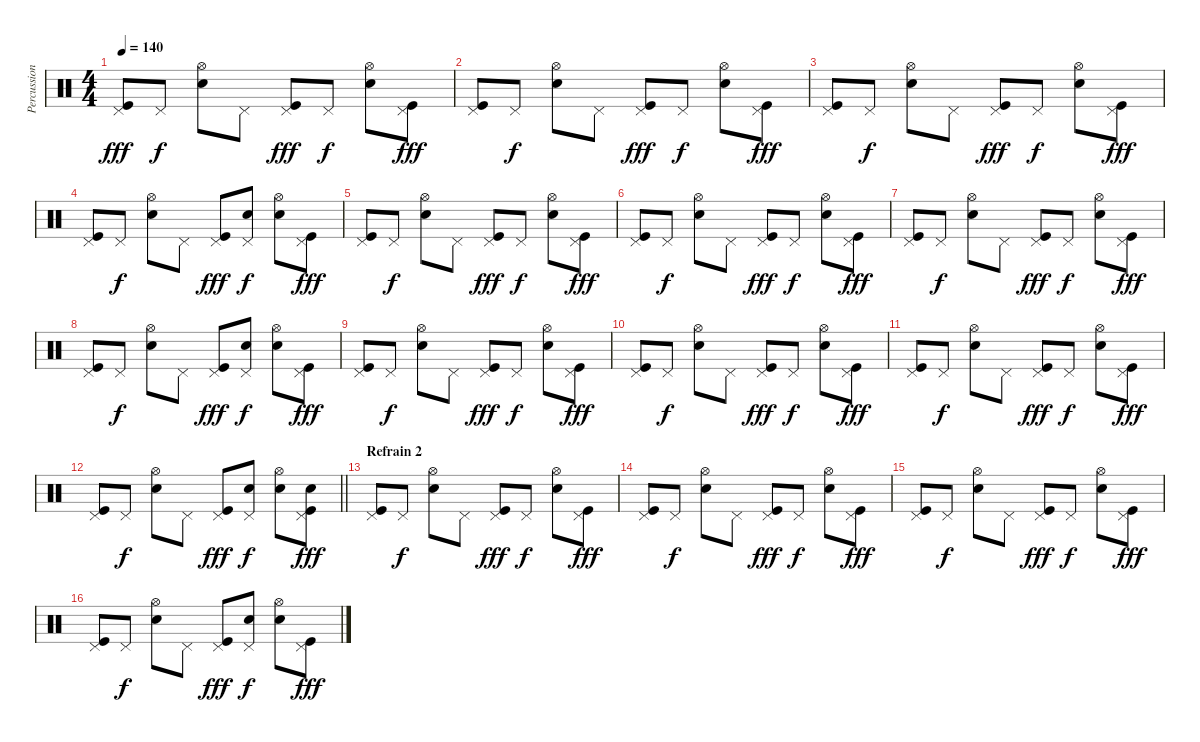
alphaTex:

\track ("Percussion" "Percussion") {instrument percussion}
\staff {score}
\articulation defaults
\ts (4 4)
\tempo 140
\clef neutral
\ks c
("Kick (hit)" "Pedal Hi-Hat (hit)").8{dy fff} "Pedal Hi-Hat (hit)".8{dy f} ("Metronome (bell)" "Hi-Hat (open)").8 "Pedal Hi-Hat (hit)".8 ("Kick (hit)" "Pedal Hi-Hat (hit)").8{dy fff} "Pedal Hi-Hat (hit)".8{dy f} ("Metronome (bell)" "Hi-Hat (open)").8 ("Kick (hit)" "Pedal Hi-Hat (hit)").8{dy fff} |
("Kick (hit)" "Pedal Hi-Hat (hit)").8 "Pedal Hi-Hat (hit)".8{dy f} ("Metronome (bell)" "Hi-Hat (open)").8 "Pedal Hi-Hat (hit)".8 ("Kick (hit)" "Pedal Hi-Hat (hit)").8{dy fff} "Pedal Hi-Hat (hit)".8{dy f} ("Metronome (bell)" "Hi-Hat (open)").8 ("Kick (hit)" "Pedal Hi-Hat (hit)").8{dy fff} |
("Kick (hit)" "Pedal Hi-Hat (hit)").8 "Pedal Hi-Hat (hit)".8{dy f} ("Metronome (bell)" "Hi-Hat (open)").8 "Pedal Hi-Hat (hit)".8 ("Kick (hit)" "Pedal Hi-Hat (hit)").8{dy fff} "Pedal Hi-Hat (hit)".8{dy f} ("Metronome (bell)" "Hi-Hat (open)").8 ("Kick (hit)" "Pedal Hi-Hat (hit)").8{dy fff} |
("Kick (hit)" "Pedal Hi-Hat (hit)").8 "Pedal Hi-Hat (hit)".8{dy f} ("Metronome (bell)" "Hi-Hat (open)").8 "Pedal Hi-Hat (hit)".8 ("Kick (hit)" "Pedal Hi-Hat (hit)").8{dy fff} ("Metronome (bell)" "Pedal Hi-Hat (hit)").8{dy f} ("Metronome (bell)" "Hi-Hat (open)").8 ("Kick (hit)" "Pedal Hi-Hat (hit)").8{dy fff} |
("Kick (hit)" "Pedal Hi-Hat (hit)").8 "Pedal Hi-Hat (hit)".8{dy f} ("Metronome (bell)" "Hi-Hat (open)").8 "Pedal Hi-Hat (hit)".8 ("Kick (hit)" "Pedal Hi-Hat (hit)").8{dy fff} "Pedal Hi-Hat (hit)".8{dy f} ("Metronome (bell)" "Hi-Hat (open)").8 ("Kick (hit)" "Pedal Hi-Hat (hit)").8{dy fff} |
("Kick (hit)" "Pedal Hi-Hat (hit)").8 "Pedal Hi-Hat (hit)".8{dy f} ("Metronome (bell)" "Hi-Hat (open)").8 "Pedal Hi-Hat (hit)".8 ("Kick (hit)" "Pedal Hi-Hat (hit)").8{dy fff} "Pedal Hi-Hat (hit)".8{dy f} ("Metronome (bell)" "Hi-Hat (open)").8 ("Kick (hit)" "Pedal Hi-Hat (hit)").8{dy fff} |
("Kick (hit)" "Pedal Hi-Hat (hit)").8 "Pedal Hi-Hat (hit)".8{dy f} ("Metronome (bell)" "Hi-Hat (open)").8 "Pedal Hi-Hat (hit)".8 ("Kick (hit)" "Pedal Hi-Hat (hit)").8{dy fff} "Pedal Hi-Hat (hit)".8{dy f} ("Metronome (bell)" "Hi-Hat (open)").8 ("Kick (hit)" "Pedal Hi-Hat (hit)").8{dy fff} |
("Kick (hit)" "Pedal Hi-Hat (hit)").8 "Pedal Hi-Hat (hit)".8{dy f} ("Metronome (bell)" "Hi-Hat (open)").8 "Pedal Hi-Hat (hit)".8 ("Kick (hit)" "Pedal Hi-Hat (hit)").8{dy fff} ("Metronome (bell)" "Pedal Hi-Hat (hit)").8{dy f} ("Metronome (bell)" "Hi-Hat (open)").8 ("Kick (hit)" "Pedal Hi-Hat (hit)").8{dy fff} |
("Kick (hit)" "Pedal Hi-Hat (hit)").8 "Pedal Hi-Hat (hit)".8{dy f} ("Metronome (bell)" "Hi-Hat (open)").8 "Pedal Hi-Hat (hit)".8 ("Kick (hit)" "Pedal Hi-Hat (hit)").8{dy fff} "Pedal Hi-Hat (hit)".8{dy f} ("Metronome (bell)" "Hi-Hat (open)").8 ("Kick (hit)" "Pedal Hi-Hat (hit)").8{dy fff} |
("Kick (hit)" "Pedal Hi-Hat (hit)").8 "Pedal Hi-Hat (hit)".8{dy f} ("Metronome (bell)" "Hi-Hat (open)").8 "Pedal Hi-Hat (hit)".8 ("Kick (hit)" "Pedal Hi-Hat (hit)").8{dy fff} "Pedal Hi-Hat (hit)".8{dy f} ("Metronome (bell)" "Hi-Hat (open)").8 ("Kick (hit)" "Pedal Hi-Hat (hit)").8{dy fff} |
("Kick (hit)" "Pedal Hi-Hat (hit)").8 "Pedal Hi-Hat (hit)".8{dy f} ("Metronome (bell)" "Hi-Hat (open)").8 "Pedal Hi-Hat (hit)".8 ("Kick (hit)" "Pedal Hi-Hat (hit)").8{dy fff} "Pedal Hi-Hat (hit)".8{dy f} ("Metronome (bell)" "Hi-Hat (open)").8 ("Kick (hit)" "Pedal Hi-Hat (hit)").8{dy fff} |
\barLineRight lightlight
("Kick (hit)" "Pedal Hi-Hat (hit)").8 "Pedal Hi-Hat (hit)".8{dy f} ("Metronome (bell)" "Hi-Hat (open)").8 "Pedal Hi-Hat (hit)".8 ("Kick (hit)" "Pedal Hi-Hat (hit)").8{dy fff} ("Metronome (bell)" "Pedal Hi-Hat (hit)").8{dy f} ("Metronome (bell)" "Hi-Hat (open)").8 ("Kick (hit)" "Metronome (bell)" "Pedal Hi-Hat (hit)").8{dy fff} |
\section ("" "Refrain 2")
("Kick (hit)" "Pedal Hi-Hat (hit)").8 "Pedal Hi-Hat (hit)".8{dy f} ("Metronome (bell)" "Hi-Hat (open)").8 "Pedal Hi-Hat (hit)".8 ("Kick (hit)" "Pedal Hi-Hat (hit)").8{dy fff} "Pedal Hi-Hat (hit)".8{dy f} ("Metronome (bell)" "Hi-Hat (open)").8 ("Kick (hit)" "Pedal Hi-Hat (hit)").8{dy fff} |
("Kick (hit)" "Pedal Hi-Hat (hit)").8 "Pedal Hi-Hat (hit)".8{dy f} ("Metronome (bell)" "Hi-Hat (open)").8 "Pedal Hi-Hat (hit)".8 ("Kick (hit)" "Pedal Hi-Hat (hit)").8{dy fff} "Pedal Hi-Hat (hit)".8{dy f} ("Metronome (bell)" "Hi-Hat (open)").8 ("Kick (hit)" "Pedal Hi-Hat (hit)").8{dy fff} |
("Kick (hit)" "Pedal Hi-Hat (hit)").8 "Pedal Hi-Hat (hit)".8{dy f} ("Metronome (bell)" "Hi-Hat (open)").8 "Pedal Hi-Hat (hit)".8 ("Kick (hit)" "Pedal Hi-Hat (hit)").8{dy fff} "Pedal Hi-Hat (hit)".8{dy f} ("Metronome (bell)" "Hi-Hat (open)").8 ("Kick (hit)" "Pedal Hi-Hat (hit)").8{dy fff} |
("Kick (hit)" "Pedal Hi-Hat (hit)").8 "Pedal Hi-Hat (hit)".8{dy f} ("Metronome (bell)" "Hi-Hat (open)").8 "Pedal Hi-Hat (hit)".8 ("Kick (hit)" "Pedal Hi-Hat (hit)").8{dy fff} ("Metronome (bell)" "Pedal Hi-Hat (hit)").8{dy f} ("Metronome (bell)" "Hi-Hat (open)").8 ("Kick (hit)" "Pedal Hi-Hat (hit)").8{dy fff}
